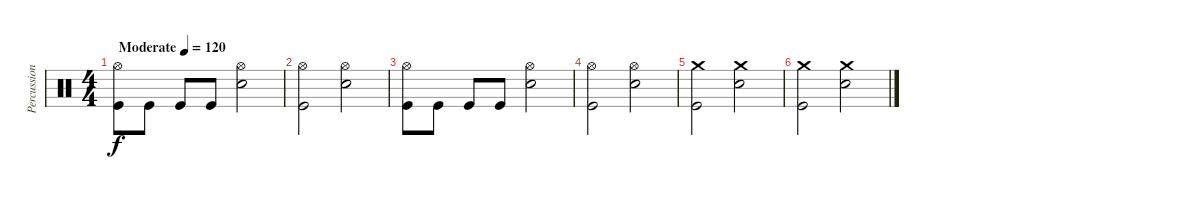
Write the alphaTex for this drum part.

\track ("Percussion" "Percussion") {instrument percussion}
\staff {score}
\articulation defaults
\ts (4 4)
\tempo (120 "Moderate")
\clef neutral
\ks c
("Hi-Hat (open)" "Kick (hit)").8{dy f} "Kick (hit)".8 "Kick (hit)".8 "Kick (hit)".8 ("Hi-Hat (open)" "Snare (hit) 2").2 |
("Hi-Hat (open)" "Kick (hit)").2 ("Hi-Hat (open)" "Snare (hit) 2").2 |
("Hi-Hat (open)" "Kick (hit)").8 "Kick (hit)".8 "Kick (hit)".8 "Kick (hit)".8 ("Hi-Hat (open)" "Snare (hit) 2").2 |
("Hi-Hat (open)" "Kick (hit)").2 ("Hi-Hat (open)" "Snare (hit) 2").2 |
("Crash medium (hit)" "Kick (hit)").2 ("Crash medium (hit)" "Snare (hit) 2").2 |
("Crash medium (hit)" "Kick (hit)").2 ("Crash medium (hit)" "Snare (hit) 2").2
